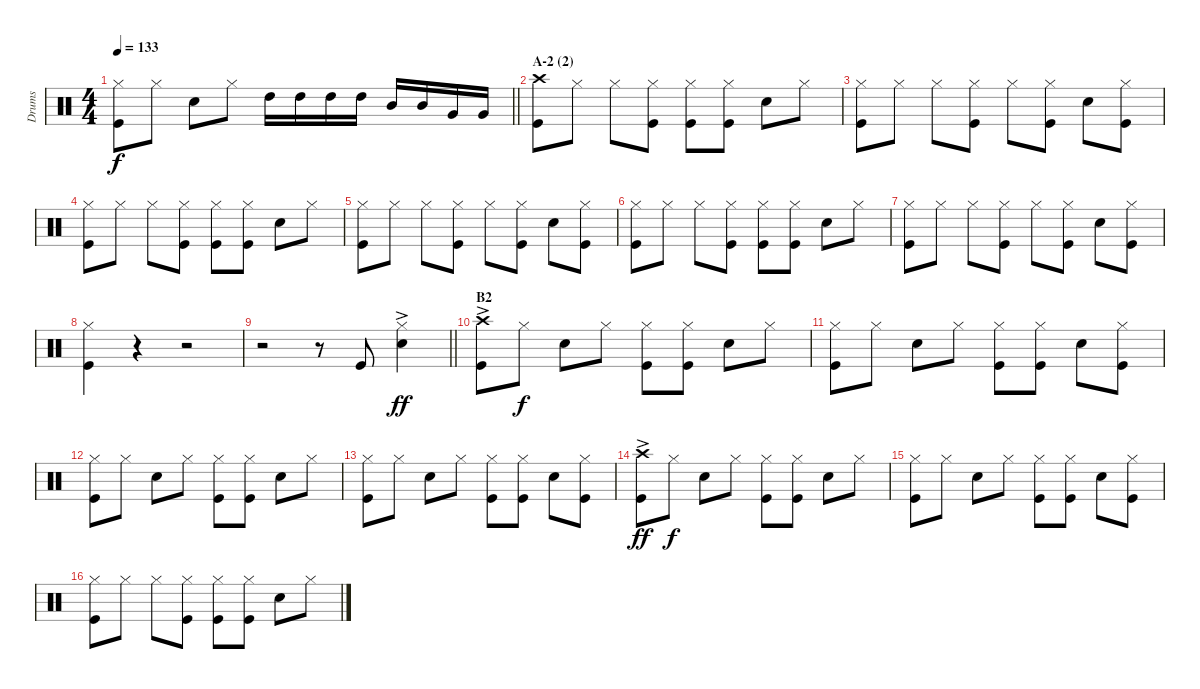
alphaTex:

\track ("Drums" "Drums") {instrument percussion}
\staff {score}
\articulation defaults
\ts (4 4)
\tempo 133
\clef neutral
\barLineRight lightlight
\ks c
("Hi-Hat (closed)" "Kick (hit)").8{dy f} "Hi-Hat (closed)".8 "Snare (hit) 2".8 "Hi-Hat (closed)".8 "High Tom (hit)".16 "High Tom (hit)".16 "High Tom (hit)".16 "High Tom (hit)".16 "Mid Tom (hit)".16 "Mid Tom (hit)".16 "Very Low Tom (hit)".16 "Very Low Tom (hit)".16 |
\section ("" "A-2 (2)")
("Crash high (hit)" "Kick (hit)").8 "Hi-Hat (closed)".8 "Hi-Hat (closed)".8 ("Hi-Hat (closed)" "Kick (hit)").8 ("Hi-Hat (closed)" "Kick (hit)").8 ("Hi-Hat (closed)" "Kick (hit)").8 "Snare (hit) 2".8 "Hi-Hat (closed)".8 |
("Hi-Hat (closed)" "Kick (hit)").8 "Hi-Hat (closed)".8 "Hi-Hat (closed)".8 ("Hi-Hat (closed)" "Kick (hit)").8 "Hi-Hat (closed)".8 ("Hi-Hat (closed)" "Kick (hit)").8 "Snare (hit) 2".8 ("Kick (hit)" "Hi-Hat (closed)").8 |
("Hi-Hat (closed)" "Kick (hit)").8 "Hi-Hat (closed)".8 "Hi-Hat (closed)".8 ("Hi-Hat (closed)" "Kick (hit)").8 ("Hi-Hat (closed)" "Kick (hit)").8 ("Hi-Hat (closed)" "Kick (hit)").8 "Snare (hit) 2".8 "Hi-Hat (closed)".8 |
("Hi-Hat (closed)" "Kick (hit)").8 "Hi-Hat (closed)".8 "Hi-Hat (closed)".8 ("Hi-Hat (closed)" "Kick (hit)").8 "Hi-Hat (closed)".8 ("Hi-Hat (closed)" "Kick (hit)").8 "Snare (hit) 2".8 ("Hi-Hat (closed)" "Kick (hit)").8 |
("Hi-Hat (closed)" "Kick (hit)").8 "Hi-Hat (closed)".8 "Hi-Hat (closed)".8 ("Hi-Hat (closed)" "Kick (hit)").8 ("Hi-Hat (closed)" "Kick (hit)").8 ("Hi-Hat (closed)" "Kick (hit)").8 "Snare (hit) 2".8 "Hi-Hat (closed)".8 |
("Hi-Hat (closed)" "Kick (hit)").8 "Hi-Hat (closed)".8 "Hi-Hat (closed)".8 ("Hi-Hat (closed)" "Kick (hit)").8 "Hi-Hat (closed)".8 ("Hi-Hat (closed)" "Kick (hit)").8 "Snare (hit) 2".8 ("Hi-Hat (closed)" "Kick (hit)").8 |
("Hi-Hat (closed)" "Kick (hit)").4 r.4 r.2 |
\barLineRight lightlight
r.2 r.8 "Kick (hit)".8 ("Hi-Hat (closed)"{ac} "Snare (hit) 2"{ac}).4{dy ff} |
\section ("" "B2")
("Crash high (hit)"{ac} "Kick (hit)").8 "Hi-Hat (closed)".8{dy f} "Snare (hit) 2".8 "Hi-Hat (closed)".8 ("Hi-Hat (closed)" "Kick (hit)").8 ("Kick (hit)" "Hi-Hat (closed)").8 "Snare (hit) 2".8 "Hi-Hat (closed)".8 |
("Hi-Hat (closed)" "Kick (hit)").8 "Hi-Hat (closed)".8 "Snare (hit) 2".8 "Hi-Hat (closed)".8 ("Hi-Hat (closed)" "Kick (hit)").8 ("Hi-Hat (closed)" "Kick (hit)").8 "Snare (hit) 2".8 ("Kick (hit)" "Hi-Hat (closed)").8 |
("Kick (hit)" "Hi-Hat (closed)").8 "Hi-Hat (closed)".8 "Snare (hit) 2".8 "Hi-Hat (closed)".8 ("Hi-Hat (closed)" "Kick (hit)").8 ("Hi-Hat (closed)" "Kick (hit)").8 "Snare (hit) 2".8 "Hi-Hat (closed)".8 |
("Hi-Hat (closed)" "Kick (hit)").8 "Hi-Hat (closed)".8 "Snare (hit) 2".8 "Hi-Hat (closed)".8 ("Hi-Hat (closed)" "Kick (hit)").8 ("Kick (hit)" "Hi-Hat (closed)").8 "Snare (hit) 2".8 ("Hi-Hat (closed)" "Kick (hit)").8 |
("Crash high (hit)"{ac} "Kick (hit)").8{dy ff} "Hi-Hat (closed)".8{dy f} "Snare (hit) 2".8 "Hi-Hat (closed)".8 ("Hi-Hat (closed)" "Kick (hit)").8 ("Hi-Hat (closed)" "Kick (hit)").8 "Snare (hit) 2".8 "Hi-Hat (closed)".8 |
("Hi-Hat (closed)" "Kick (hit)").8 "Hi-Hat (closed)".8 "Snare (hit) 2".8 "Hi-Hat (closed)".8 ("Hi-Hat (closed)" "Kick (hit)").8 ("Hi-Hat (closed)" "Kick (hit)").8 "Snare (hit) 2".8 ("Hi-Hat (closed)" "Kick (hit)").8 |
("Hi-Hat (closed)" "Kick (hit)").8 "Hi-Hat (closed)".8 "Hi-Hat (closed)".8 ("Hi-Hat (closed)" "Kick (hit)").8 ("Kick (hit)" "Hi-Hat (closed)").8 ("Hi-Hat (closed)" "Kick (hit)").8 "Snare (hit) 2".8 "Hi-Hat (closed)".8
